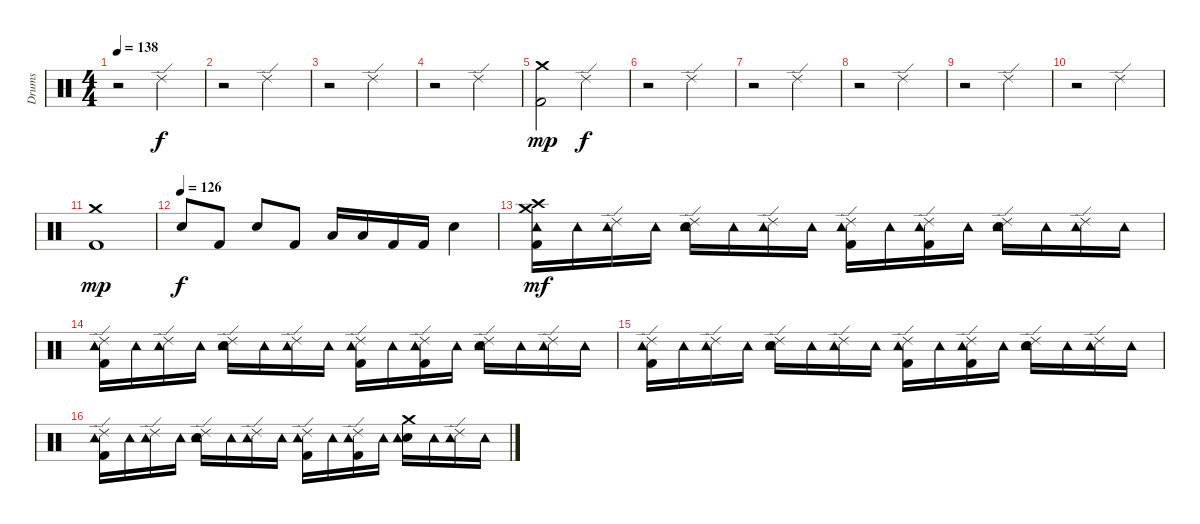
\track ("Drums" "Drums") {instrument percussion}
\staff {score}
\articulation defaults
\ts (4 4)
\tempo 138
\clef neutral
\ks c
r.2{dy f} "Ride (edge) 2".2 |
r.2 "Ride (edge) 2".2 |
r.2 "Ride (edge) 2".2 |
r.2 "Ride (edge) 2".2 |
("Crash medium (hit)" "Kick (hit) 2").2{dy mp} "Ride (edge) 2".2{dy f} |
r.2 "Ride (edge) 2".2 |
r.2 "Ride (edge) 2".2 |
r.2 "Ride (edge) 2".2 |
r.2 "Ride (edge) 2".2 |
r.2 "Ride (edge) 2".2 |
("Crash medium (hit)" "Kick (hit) 2").1{dy mp} |
\tempo (126)
"Electric Snare (hit)".8{dy f} "Kick (hit) 2".8 "Electric Snare (hit)".8 "Kick (hit) 2".8 "Low Tom (hit)".16 "Low Tom (hit)".16 "Kick (hit) 2".16 "Kick (hit) 2".16 "Electric Snare (hit)".4 |
("Crash high (hit)" "Crash medium (hit)" "Tambourine (hit)" "Kick (hit) 2").16{dy mf} "Tambourine (hit)".16 ("Ride (edge) 2" "Tambourine (hit)").16 "Tambourine (hit)".16 ("Ride (edge) 2" "Electric Snare (hit)" "Tambourine (hit)").16 "Tambourine (hit)".16 ("Ride (edge) 2" "Tambourine (hit)").16 "Tambourine (hit)".16 ("Ride (edge) 2" "Tambourine (hit)" "Kick (hit) 2").16 "Tambourine (hit)".16 ("Ride (edge) 2" "Tambourine (hit)" "Kick (hit) 2").16 "Tambourine (hit)".16 ("Ride (edge) 2" "Electric Snare (hit)" "Tambourine (hit)").16 "Tambourine (hit)".16 ("Ride (edge) 2" "Tambourine (hit)").16 "Tambourine (hit)".16 |
("Ride (edge) 2" "Tambourine (hit)" "Kick (hit) 2").16 "Tambourine (hit)".16 ("Ride (edge) 2" "Tambourine (hit)").16 "Tambourine (hit)".16 ("Ride (edge) 2" "Electric Snare (hit)" "Tambourine (hit)").16 "Tambourine (hit)".16 ("Ride (edge) 2" "Tambourine (hit)").16 "Tambourine (hit)".16 ("Ride (edge) 2" "Tambourine (hit)" "Kick (hit) 2").16 "Tambourine (hit)".16 ("Ride (edge) 2" "Tambourine (hit)" "Kick (hit) 2").16 "Tambourine (hit)".16 ("Ride (edge) 2" "Electric Snare (hit)" "Tambourine (hit)").16 "Tambourine (hit)".16 ("Ride (edge) 2" "Tambourine (hit)").16 "Tambourine (hit)".16 |
("Ride (edge) 2" "Tambourine (hit)" "Kick (hit) 2").16 "Tambourine (hit)".16 ("Ride (edge) 2" "Tambourine (hit)").16 "Tambourine (hit)".16 ("Ride (edge) 2" "Electric Snare (hit)" "Tambourine (hit)").16 "Tambourine (hit)".16 ("Ride (edge) 2" "Tambourine (hit)").16 "Tambourine (hit)".16 ("Ride (edge) 2" "Tambourine (hit)" "Kick (hit) 2").16 "Tambourine (hit)".16 ("Ride (edge) 2" "Tambourine (hit)" "Kick (hit) 2").16 "Tambourine (hit)".16 ("Ride (edge) 2" "Electric Snare (hit)" "Tambourine (hit)").16 "Tambourine (hit)".16 ("Ride (edge) 2" "Tambourine (hit)").16 "Tambourine (hit)".16 |
("Ride (edge) 2" "Tambourine (hit)" "Kick (hit) 2").16 "Tambourine (hit)".16 ("Ride (edge) 2" "Tambourine (hit)").16 "Tambourine (hit)".16 ("Ride (edge) 2" "Electric Snare (hit)" "Tambourine (hit)").16 "Tambourine (hit)".16 ("Ride (edge) 2" "Tambourine (hit)").16 "Tambourine (hit)".16 ("Ride (edge) 2" "Tambourine (hit)" "Kick (hit) 2").16 "Tambourine (hit)".16 ("Ride (edge) 2" "Tambourine (hit)" "Kick (hit) 2").16 "Tambourine (hit)".16 ("Crash medium (hit)" "Electric Snare (hit)" "Tambourine (hit)").16 "Tambourine (hit)".16 ("Ride (edge) 2" "Tambourine (hit)").16 "Tambourine (hit)".16
